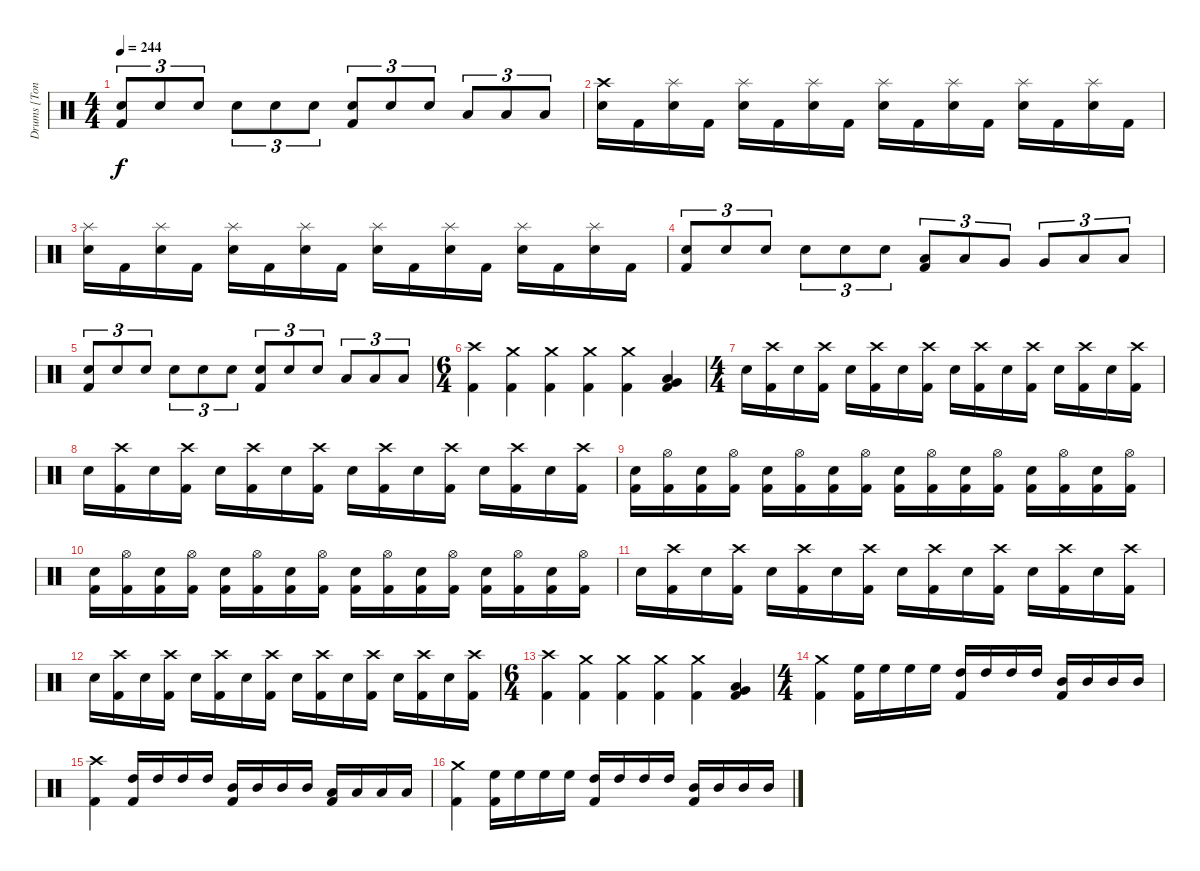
\track ("Drums [Tony Laureano]" "Drums [Ton") {instrument percussion}
\staff {score}
\articulation defaults
\ts (4 4)
\tempo 244
\clef neutral
\ks c
("Electric Snare (hit)" "Kick (hit) 2").8{tu (3 2) dy f} "Electric Snare (hit)".8{tu (3 2)} "Electric Snare (hit)".8{tu (3 2)} "Electric Snare (hit)".8{tu (3 2)} "Electric Snare (hit)".8{tu (3 2)} "Electric Snare (hit)".8{tu (3 2)} ("Electric Snare (hit)" "Kick (hit) 2").8{tu (3 2)} "Electric Snare (hit)".8{tu (3 2)} "Electric Snare (hit)".8{tu (3 2)} "Low Floor Tom (hit)".8{tu (3 2)} "Low Floor Tom (hit)".8{tu (3 2)} "Low Floor Tom (hit)".8{tu (3 2)} |
("Crash high (hit)" "Electric Snare (hit)").16 "Kick (hit) 2".16 ("Splash (hit)" "Electric Snare (hit)").16 "Kick (hit) 2".16 ("Splash (hit)" "Electric Snare (hit)").16 "Kick (hit) 2".16 ("Splash (hit)" "Electric Snare (hit)").16 "Kick (hit) 2".16 ("Splash (hit)" "Electric Snare (hit)").16 "Kick (hit) 2".16 ("Splash (hit)" "Electric Snare (hit)").16 "Kick (hit) 2".16 ("Splash (hit)" "Electric Snare (hit)").16 "Kick (hit) 2".16 ("Splash (hit)" "Electric Snare (hit)").16 "Kick (hit) 2".16 |
("Splash (hit)" "Electric Snare (hit)").16 "Kick (hit) 2".16 ("Splash (hit)" "Electric Snare (hit)").16 "Kick (hit) 2".16 ("Splash (hit)" "Electric Snare (hit)").16 "Kick (hit) 2".16 ("Splash (hit)" "Electric Snare (hit)").16 "Kick (hit) 2".16 ("Splash (hit)" "Electric Snare (hit)").16 "Kick (hit) 2".16 ("Splash (hit)" "Electric Snare (hit)").16 "Kick (hit) 2".16 ("Splash (hit)" "Electric Snare (hit)").16 "Kick (hit) 2".16 ("Splash (hit)" "Electric Snare (hit)").16 "Kick (hit) 2".16 |
("Electric Snare (hit)" "Kick (hit) 2").8{tu (3 2)} "Electric Snare (hit)".8{tu (3 2)} "Electric Snare (hit)".8{tu (3 2)} "Electric Snare (hit)".8{tu (3 2)} "Electric Snare (hit)".8{tu (3 2)} "Electric Snare (hit)".8{tu (3 2)} ("Low Tom (hit)" "Kick (hit) 2").8{tu (3 2)} "Low Tom (hit)".8{tu (3 2)} "Very Low Tom (hit)".8{tu (3 2)} "Very Low Tom (hit)".8{tu (3 2)} "Low Floor Tom (hit)".8{tu (3 2)} "Low Floor Tom (hit)".8{tu (3 2)} |
("Electric Snare (hit)" "Kick (hit) 2").8{tu (3 2)} "Electric Snare (hit)".8{tu (3 2)} "Electric Snare (hit)".8{tu (3 2)} "Electric Snare (hit)".8{tu (3 2)} "Electric Snare (hit)".8{tu (3 2)} "Electric Snare (hit)".8{tu (3 2)} ("Electric Snare (hit)" "Kick (hit) 2").8{tu (3 2)} "Electric Snare (hit)".8{tu (3 2)} "Electric Snare (hit)".8{tu (3 2)} "Low Floor Tom (hit)".8{tu (3 2)} "Low Floor Tom (hit)".8{tu (3 2)} "Low Floor Tom (hit)".8{tu (3 2)} |
\ts (6 4)
("Crash high (hit)" "Kick (hit) 2").4 ("Crash medium (hit)" "Kick (hit) 2").4 ("Crash medium (hit)" "Kick (hit) 2").4 ("Crash medium (hit)" "Kick (hit) 2").4 ("Crash medium (hit)" "Kick (hit) 2").4 ("Very Low Tom (hit)" "Low Floor Tom (hit)" "Kick (hit) 2").4 |
\ts (4 4)
"Electric Snare (hit)".16 ("Crash high (hit)" "Kick (hit) 2").16 "Electric Snare (hit)".16 ("Crash high (hit)" "Kick (hit) 2").16 "Electric Snare (hit)".16 ("Crash high (hit)" "Kick (hit) 2").16 "Electric Snare (hit)".16 ("Crash high (hit)" "Kick (hit) 2").16 "Electric Snare (hit)".16 ("Crash high (hit)" "Kick (hit) 2").16 "Electric Snare (hit)".16 ("Crash high (hit)" "Kick (hit) 2").16 "Electric Snare (hit)".16 ("Crash high (hit)" "Kick (hit) 2").16 "Electric Snare (hit)".16 ("Crash high (hit)" "Kick (hit) 2").16 |
"Electric Snare (hit)".16 ("Crash high (hit)" "Kick (hit) 2").16 "Electric Snare (hit)".16 ("Crash high (hit)" "Kick (hit) 2").16 "Electric Snare (hit)".16 ("Crash high (hit)" "Kick (hit) 2").16 "Electric Snare (hit)".16 ("Crash high (hit)" "Kick (hit) 2").16 "Electric Snare (hit)".16 ("Crash high (hit)" "Kick (hit) 2").16 "Electric Snare (hit)".16 ("Crash high (hit)" "Kick (hit) 2").16 "Electric Snare (hit)".16 ("Crash high (hit)" "Kick (hit) 2").16 "Electric Snare (hit)".16 ("Crash high (hit)" "Kick (hit) 2").16 |
("Electric Snare (hit)" "Kick (hit) 2").16 ("Hi-Hat (open)" "Kick (hit) 2").16 ("Electric Snare (hit)" "Kick (hit) 2").16 ("Hi-Hat (open)" "Kick (hit) 2").16 ("Electric Snare (hit)" "Kick (hit) 2").16 ("Hi-Hat (open)" "Kick (hit) 2").16 ("Electric Snare (hit)" "Kick (hit) 2").16 ("Hi-Hat (open)" "Kick (hit) 2").16 ("Electric Snare (hit)" "Kick (hit) 2").16 ("Hi-Hat (open)" "Kick (hit) 2").16 ("Electric Snare (hit)" "Kick (hit) 2").16 ("Hi-Hat (open)" "Kick (hit) 2").16 ("Electric Snare (hit)" "Kick (hit) 2").16 ("Hi-Hat (open)" "Kick (hit) 2").16 ("Electric Snare (hit)" "Kick (hit) 2").16 ("Hi-Hat (open)" "Kick (hit) 2").16 |
("Electric Snare (hit)" "Kick (hit) 2").16 ("Hi-Hat (open)" "Kick (hit) 2").16 ("Electric Snare (hit)" "Kick (hit) 2").16 ("Hi-Hat (open)" "Kick (hit) 2").16 ("Electric Snare (hit)" "Kick (hit) 2").16 ("Hi-Hat (open)" "Kick (hit) 2").16 ("Electric Snare (hit)" "Kick (hit) 2").16 ("Hi-Hat (open)" "Kick (hit) 2").16 ("Electric Snare (hit)" "Kick (hit) 2").16 ("Hi-Hat (open)" "Kick (hit) 2").16 ("Electric Snare (hit)" "Kick (hit) 2").16 ("Hi-Hat (open)" "Kick (hit) 2").16 ("Electric Snare (hit)" "Kick (hit) 2").16 ("Hi-Hat (open)" "Kick (hit) 2").16 ("Electric Snare (hit)" "Kick (hit) 2").16 ("Hi-Hat (open)" "Kick (hit) 2").16 |
"Electric Snare (hit)".16 ("Crash high (hit)" "Kick (hit) 2").16 "Electric Snare (hit)".16 ("Crash high (hit)" "Kick (hit) 2").16 "Electric Snare (hit)".16 ("Crash high (hit)" "Kick (hit) 2").16 "Electric Snare (hit)".16 ("Crash high (hit)" "Kick (hit) 2").16 "Electric Snare (hit)".16 ("Crash high (hit)" "Kick (hit) 2").16 "Electric Snare (hit)".16 ("Crash high (hit)" "Kick (hit) 2").16 "Electric Snare (hit)".16 ("Crash high (hit)" "Kick (hit) 2").16 "Electric Snare (hit)".16 ("Crash high (hit)" "Kick (hit) 2").16 |
"Electric Snare (hit)".16 ("Crash high (hit)" "Kick (hit) 2").16 "Electric Snare (hit)".16 ("Crash high (hit)" "Kick (hit) 2").16 "Electric Snare (hit)".16 ("Crash high (hit)" "Kick (hit) 2").16 "Electric Snare (hit)".16 ("Crash high (hit)" "Kick (hit) 2").16 "Electric Snare (hit)".16 ("Crash high (hit)" "Kick (hit) 2").16 "Electric Snare (hit)".16 ("Crash high (hit)" "Kick (hit) 2").16 "Electric Snare (hit)".16 ("Crash high (hit)" "Kick (hit) 2").16 "Electric Snare (hit)".16 ("Crash high (hit)" "Kick (hit) 2").16 |
\ts (6 4)
("Crash high (hit)" "Kick (hit) 2").4 ("Crash medium (hit)" "Kick (hit) 2").4 ("Crash medium (hit)" "Kick (hit) 2").4 ("Crash medium (hit)" "Kick (hit) 2").4 ("Crash medium (hit)" "Kick (hit) 2").4 ("Very Low Tom (hit)" "Low Floor Tom (hit)" "Kick (hit) 2").4 |
\ts (4 4)
("Crash medium (hit)" "Kick (hit) 2").4 ("High Floor Tom (hit)" "Kick (hit) 2").16 "High Floor Tom (hit)".16 "High Floor Tom (hit)".16 "High Floor Tom (hit)".16 ("High Tom (hit)" "Kick (hit) 2").16 "High Tom (hit)".16 "High Tom (hit)".16 "High Tom (hit)".16 ("Mid Tom (hit)" "Kick (hit) 2").16 "Mid Tom (hit)".16 "Mid Tom (hit)".16 "Mid Tom (hit)".16 |
("Crash high (hit)" "Kick (hit) 2").4 ("High Tom (hit)" "Kick (hit) 2").16 "High Tom (hit)".16 "High Tom (hit)".16 "High Tom (hit)".16 ("Mid Tom (hit)" "Kick (hit) 2").16 "Mid Tom (hit)".16 "Mid Tom (hit)".16 "Mid Tom (hit)".16 ("Low Tom (hit)" "Kick (hit) 2").16 "Low Tom (hit)".16 "Low Tom (hit)".16 "Low Tom (hit)".16 |
("Crash medium (hit)" "Kick (hit) 2").4 ("High Floor Tom (hit)" "Kick (hit) 2").16 "High Floor Tom (hit)".16 "High Floor Tom (hit)".16 "High Floor Tom (hit)".16 ("High Tom (hit)" "Kick (hit) 2").16 "High Tom (hit)".16 "High Tom (hit)".16 "High Tom (hit)".16 ("Mid Tom (hit)" "Kick (hit) 2").16 "Mid Tom (hit)".16 "Mid Tom (hit)".16 "Mid Tom (hit)".16
